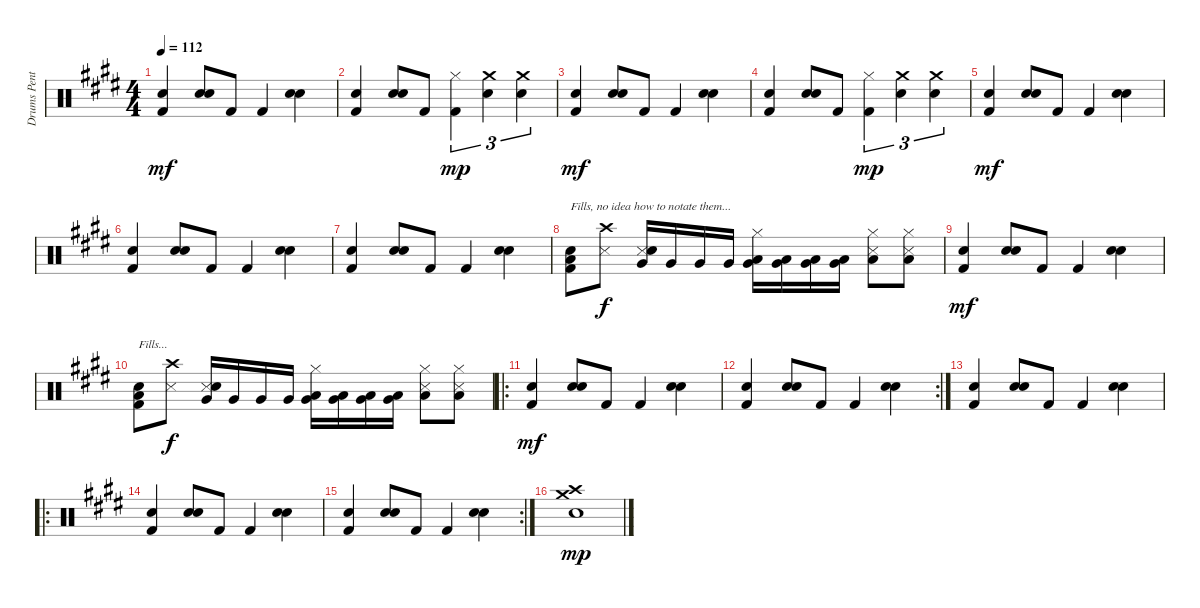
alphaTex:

\track ("Drums Pentti Glan" "Drums Pent") {mute instrument percussion}
\staff {score}
\articulation defaults
\ts (4 4)
\tempo 112
\clef neutral
\ks e
("Hand Clap (hit)" "Kick (hit) 2").4{dy mf} ("Electric Snare (hit)" "Snare (hit) 2").8 "Kick (hit) 2".8 "Kick (hit) 2".4 ("Electric Snare (hit)" "Snare (hit) 2").4 |
("Hand Clap (hit)" "Kick (hit) 2").4 ("Electric Snare (hit)" "Snare (hit) 2").8 "Kick (hit) 2".8 ("Hi-Hat (closed)" "Kick (hit) 2").4{tu (3 2) dy mp} ("Crash medium (hit)" "Electric Snare (hit)").4{tu (3 2)} ("Crash medium (hit)" "Electric Snare (hit)").4{tu (3 2)} |
("Hand Clap (hit)" "Kick (hit) 2").4{dy mf} ("Electric Snare (hit)" "Snare (hit) 2").8 "Kick (hit) 2".8 "Kick (hit) 2".4 ("Electric Snare (hit)" "Snare (hit) 2").4 |
("Hand Clap (hit)" "Kick (hit) 2").4 ("Electric Snare (hit)" "Snare (hit) 2").8 "Kick (hit) 2".8 ("Hi-Hat (closed)" "Kick (hit) 2").4{tu (3 2) dy mp} ("Crash medium (hit)" "Electric Snare (hit)").4{tu (3 2)} ("Crash medium (hit)" "Electric Snare (hit)").4{tu (3 2)} |
("Hand Clap (hit)" "Kick (hit) 2").4{dy mf} ("Electric Snare (hit)" "Snare (hit) 2").8 "Kick (hit) 2".8 "Kick (hit) 2".4 ("Electric Snare (hit)" "Snare (hit) 2").4 |
("Hand Clap (hit)" "Kick (hit) 2").4 ("Electric Snare (hit)" "Snare (hit) 2").8 "Kick (hit) 2".8 "Kick (hit) 2".4 ("Electric Snare (hit)" "Snare (hit) 2").4 |
("Hand Clap (hit)" "Kick (hit) 2").4 ("Electric Snare (hit)" "Snare (hit) 2").8 "Kick (hit) 2".8 "Kick (hit) 2".4 ("Electric Snare (hit)" "Snare (hit) 2").4 |
("Low Tom (hit)" "Hand Clap (hit)" "Kick (hit) 2").8{txt "Fills, no idea how to notate them..."} ("Crash high (hit)" "Snare (side stick) 3").8{dy f} ("Snare (side stick) 3" "Very Low Tom (hit)" "Snare (hit) 2").16 "Very Low Tom (hit)".16 "Very Low Tom (hit)".16 "Very Low Tom (hit)".16 ("Low Tom (hit)" "Very Low Tom (hit)" "Hi-Hat (closed)").16 ("Low Tom (hit)" "Very Low Tom (hit)").16 ("Low Tom (hit)" "Very Low Tom (hit)").16 ("Low Tom (hit)" "Very Low Tom (hit)").16 ("Snare (side stick) 3" "Low Tom (hit)" "Hi-Hat (closed)").8 ("Snare (side stick) 3" "Low Tom (hit)" "Hi-Hat (closed)").8 |
("Hand Clap (hit)" "Kick (hit) 2").4{dy mf} ("Electric Snare (hit)" "Snare (hit) 2").8 "Kick (hit) 2".8 "Kick (hit) 2".4 ("Electric Snare (hit)" "Snare (hit) 2").4 |
("Low Tom (hit)" "Hand Clap (hit)" "Kick (hit) 2").8{txt "Fills..."} ("Crash high (hit)" "Snare (side stick) 3").8{dy f} ("Snare (side stick) 3" "Very Low Tom (hit)" "Snare (hit) 2").16 "Very Low Tom (hit)".16 "Very Low Tom (hit)".16 "Very Low Tom (hit)".16 ("Low Tom (hit)" "Very Low Tom (hit)" "Hi-Hat (closed)").16 ("Low Tom (hit)" "Very Low Tom (hit)").16 ("Low Tom (hit)" "Very Low Tom (hit)").16 ("Low Tom (hit)" "Very Low Tom (hit)").16 ("Snare (side stick) 3" "Low Tom (hit)" "Hi-Hat (closed)").8 ("Snare (side stick) 3" "Low Tom (hit)" "Hi-Hat (closed)").8 |
\ro
("Hand Clap (hit)" "Kick (hit) 2").4{dy mf} ("Electric Snare (hit)" "Snare (hit) 2").8 "Kick (hit) 2".8 "Kick (hit) 2".4 ("Electric Snare (hit)" "Snare (hit) 2").4 |
\rc 2
("Hand Clap (hit)" "Kick (hit) 2").4 ("Electric Snare (hit)" "Snare (hit) 2").8 "Kick (hit) 2".8 "Kick (hit) 2".4 ("Electric Snare (hit)" "Snare (hit) 2").4 |
("Hand Clap (hit)" "Kick (hit) 2").4 ("Electric Snare (hit)" "Snare (hit) 2").8 "Kick (hit) 2".8 "Kick (hit) 2".4 ("Electric Snare (hit)" "Snare (hit) 2").4 |
\ro
("Hand Clap (hit)" "Kick (hit) 2").4 ("Electric Snare (hit)" "Snare (hit) 2").8 "Kick (hit) 2".8 "Kick (hit) 2".4 ("Electric Snare (hit)" "Snare (hit) 2").4 |
\rc 2
("Hand Clap (hit)" "Kick (hit) 2").4 ("Electric Snare (hit)" "Snare (hit) 2").8 "Kick (hit) 2".8 "Kick (hit) 2".4 ("Electric Snare (hit)" "Snare (hit) 2").4 |
("Crash high (hit)" "Crash medium (hit)" "Electric Snare (hit)").1{dy mp}
